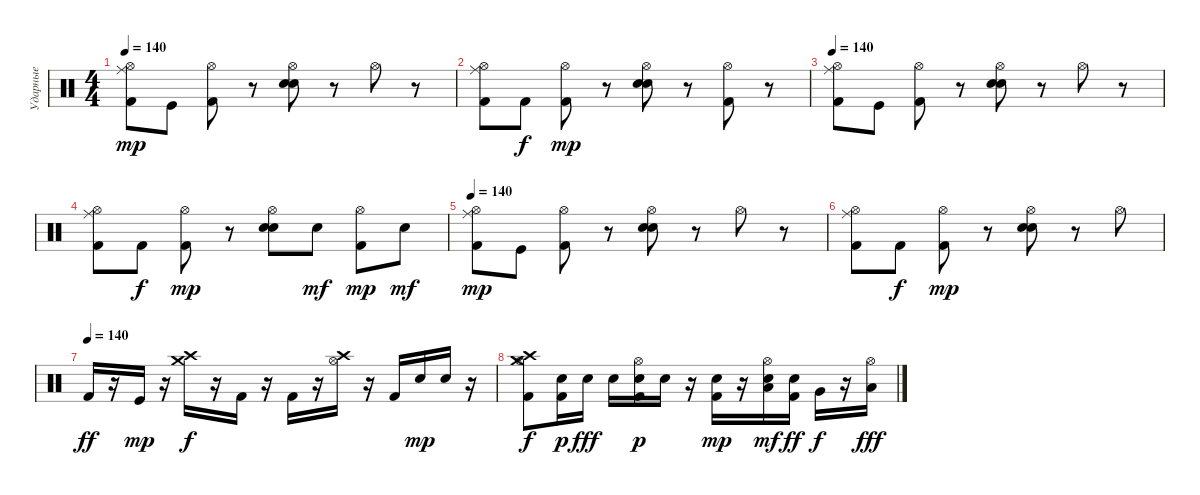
\track ("Ударные" "Ударные") {instrument percussion}
\staff {score}
\articulation defaults
\ts (4 4)
\tempo 140
\clef neutral
\ks c
("Ride (middle)" "Hi-Hat (open)" "Kick (hit) 2").8{dy mp} "Kick (hit)".8 ("Hi-Hat (open)" "Kick (hit) 2").8 r.8 ("Hi-Hat (open)" "Electric Snare (hit)" "Snare (hit) 2").8 r.8 "Hi-Hat (open)".8 r.8 |
("Ride (middle)" "Hi-Hat (open)" "Kick (hit) 2").8 "Kick (hit) 2".8{dy f} ("Hi-Hat (open)" "Kick (hit) 2").8{dy mp} r.8 ("Hi-Hat (open)" "Electric Snare (hit)" "Snare (hit) 2").8 r.8 ("Hi-Hat (open)" "Kick (hit) 2").8 r.8 |
\tempo 140
("Ride (middle)" "Hi-Hat (open)" "Kick (hit) 2").8 "Kick (hit)".8 ("Hi-Hat (open)" "Kick (hit) 2").8 r.8 ("Hi-Hat (open)" "Electric Snare (hit)" "Snare (hit) 2").8 r.8 "Hi-Hat (open)".8 r.8 |
("Ride (middle)" "Hi-Hat (open)" "Kick (hit) 2").8 "Kick (hit) 2".8{dy f} ("Hi-Hat (open)" "Kick (hit) 2").8{dy mp} r.8 ("Hi-Hat (open)" "Electric Snare (hit)" "Snare (hit) 2").8 "Snare (hit) 2".8{dy mf} ("Hi-Hat (open)" "Kick (hit) 2").8{dy mp} "Snare (hit) 2".8{dy mf} |
\tempo 140
("Ride (middle)" "Hi-Hat (open)" "Kick (hit) 2").8{dy mp} "Kick (hit)".8 ("Hi-Hat (open)" "Kick (hit) 2").8 r.8 ("Hi-Hat (open)" "Electric Snare (hit)" "Snare (hit) 2").8 r.8 "Hi-Hat (open)".8 r.8 |
("Ride (middle)" "Hi-Hat (open)" "Kick (hit) 2").8 "Kick (hit) 2".8{dy f} ("Hi-Hat (open)" "Kick (hit) 2").8{dy mp} r.8 ("Hi-Hat (open)" "Electric Snare (hit)" "Snare (hit) 2").8 r.8 "Hi-Hat (open)".8 |
\tempo (140)
"Kick (hit) 2".16{dy ff} r.16 "Kick (hit)".16{dy mp} r.16 ("Crash high (hit)" "Crash medium (hit)").16{dy f} r.16 "Kick (hit) 2".16 r.16 "Kick (hit) 2".16 r.16 ("Crash high (hit)" "Hi-Hat (open)").16 r.16 "Kick (hit) 2".16 "Snare (hit) 2".16{dy mp} "Electric Snare (hit)".16 r.16 |
("Crash high (hit)" "Crash medium (hit)" "Hi-Hat (open)" "Kick (hit) 2").8{dy f} ("Snare (hit) 2" "Kick (hit) 2").16{dy p} "Snare (hit) 2".16{dy fff} "Snare (hit) 2".16 ("Hi-Hat (open)" "Snare (hit) 2" "Kick (hit) 2").16{dy p} "Snare (hit) 2".16 r.16 ("Snare (hit) 2" "Kick (hit) 2").16{dy mp} r.16 ("Hi-Hat (open)" "Low Tom (hit)" "Snare (hit) 2").16{dy mf} ("Snare (hit) 2" "Kick (hit) 2").16{dy ff} "Very Low Tom (hit)".16{dy f} r.16 ("Hi-Hat (open)" "Low Floor Tom (hit)").16{dy fff}
